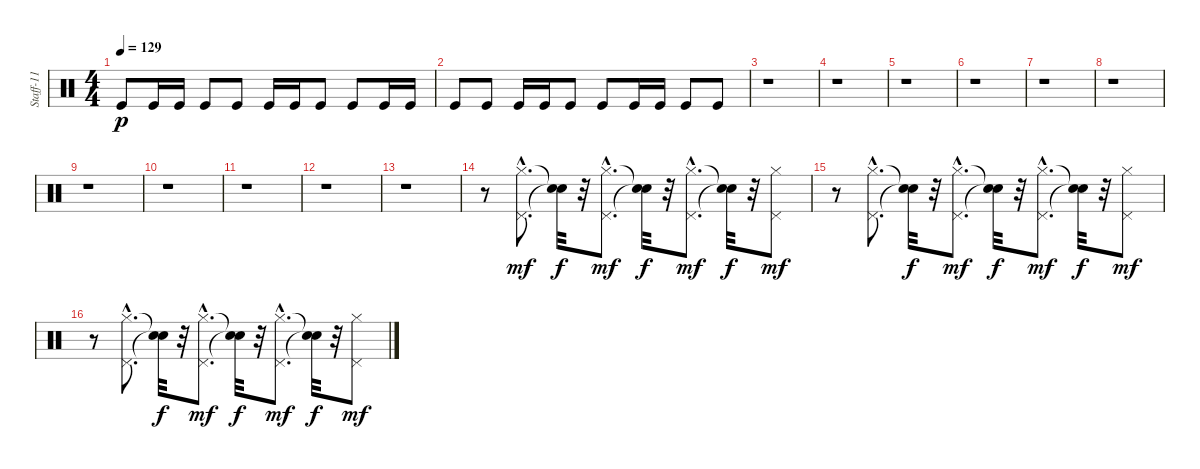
\track ("Staff-11" "Staff-11") {instrument percussion}
\staff {score}
\articulation defaults
\ts (4 4)
\tempo 129
\clef neutral
\ks c "Kick (hit)".8{dy p} "Kick (hit)".16 "Kick (hit)".16 "Kick (hit)".8 "Kick (hit)".8 "Kick (hit)".16 "Kick (hit)".16 "Kick (hit)".8 "Kick (hit)".8 "Kick (hit)".16 "Kick (hit)".16
|
"Kick (hit)".8 "Kick (hit)".8 "Kick (hit)".16 "Kick (hit)".16 "Kick (hit)".8 "Kick (hit)".8 "Kick (hit)".16 "Kick (hit)".16 "Kick (hit)".8 "Kick (hit)".8 |
r.1 |
r.1 |
r.1 |
r.1 |
r.1 |
r.1 |
r.1 |
r.1 |
r.1 |
r.1 |
r.1 |
r.8 ("Hi-Hat (closed)"{hac} "Pedal Hi-Hat (hit)"{hac}).8{d dy mf} ("Snare (hit)"{t} "Snare (hit)"{t}).32{dy f} r.32 ("Hi-Hat (closed)"{hac} "Pedal Hi-Hat (hit)"{hac}).8{d dy mf} ("Snare (hit)"{t} "Snare (hit)"{t}).32{dy f} r.32 ("Hi-Hat (closed)"{hac} "Pedal Hi-Hat (hit)"{hac}).8{d dy mf} ("Snare (hit)"{t} "Snare (hit)"{t}).32{dy f} r.32 ("Hi-Hat (closed)" "Pedal Hi-Hat (hit)").8{dy mf} |
r.8 ("Hi-Hat (closed)"{hac} "Pedal Hi-Hat (hit)"{hac}).8{d} ("Snare (hit)"{t} "Snare (hit)"{t}).32{dy f} r.32 ("Hi-Hat (closed)"{hac} "Pedal Hi-Hat (hit)"{hac}).8{d dy mf} ("Snare (hit)"{t} "Snare (hit)"{t}).32{dy f} r.32 ("Hi-Hat (closed)"{hac} "Pedal Hi-Hat (hit)"{hac}).8{d dy mf} ("Snare (hit)"{t} "Snare (hit)"{t}).32{dy f} r.32 ("Hi-Hat (closed)" "Pedal Hi-Hat (hit)").8{dy mf} |
r.8 ("Hi-Hat (closed)"{hac} "Pedal Hi-Hat (hit)"{hac}).8{d} ("Snare (hit)"{t} "Snare (hit)"{t}).32{dy f} r.32 ("Hi-Hat (closed)"{hac} "Pedal Hi-Hat (hit)"{hac}).8{d dy mf} ("Snare (hit)"{t} "Snare (hit)"{t}).32{dy f} r.32 ("Hi-Hat (closed)"{hac} "Pedal Hi-Hat (hit)"{hac}).8{d dy mf} ("Snare (hit)"{t} "Snare (hit)"{t}).32{dy f} r.32 ("Hi-Hat (closed)" "Pedal Hi-Hat (hit)").8{dy mf}
